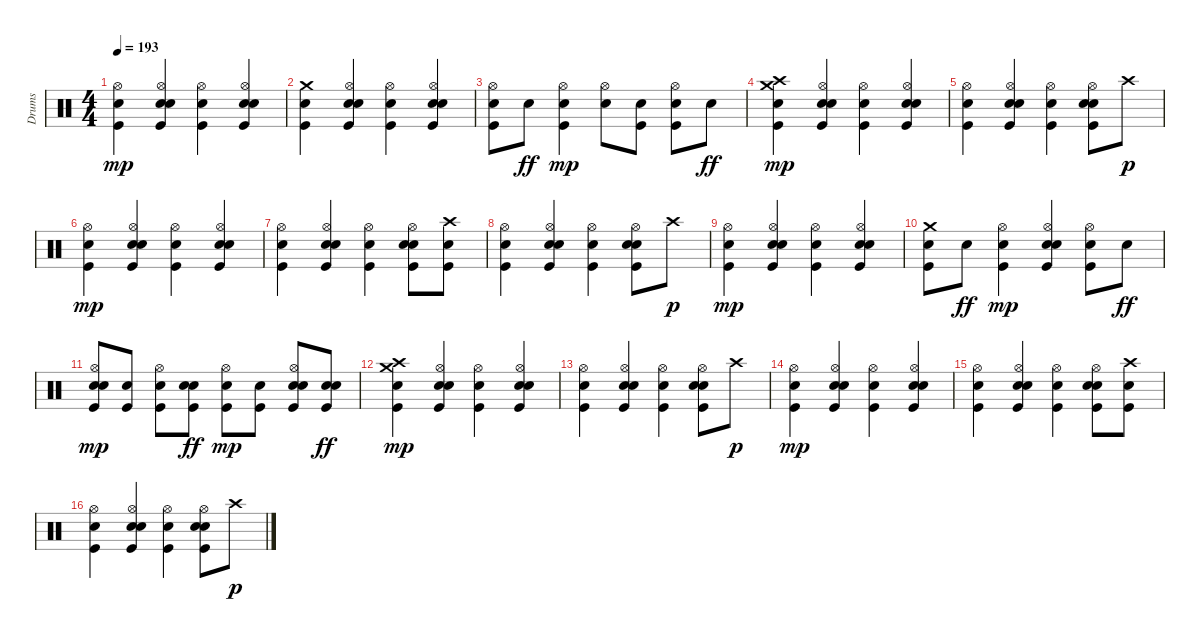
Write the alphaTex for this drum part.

\track ("Drums" "Drums") {instrument percussion}
\staff {score}
\articulation defaults
\ts (4 4)
\tempo 193
\clef neutral
\ks c
("Kick (hit)" "Snare (hit) 2" "Hi-Hat (open)").4{dy mp} ("Kick (hit)" "Snare (hit) 2" "Electric Snare (hit)" "Hi-Hat (open)").4 ("Kick (hit)" "Snare (hit) 2" "Hi-Hat (open)").4 ("Kick (hit)" "Snare (hit) 2" "Electric Snare (hit)" "Hi-Hat (open)").4 |
("Crash medium (hit)" "Kick (hit)" "Snare (hit) 2").4 ("Kick (hit)" "Snare (hit) 2" "Electric Snare (hit)" "Hi-Hat (open)").4 ("Kick (hit)" "Snare (hit) 2" "Hi-Hat (open)").4 ("Kick (hit)" "Snare (hit) 2" "Electric Snare (hit)" "Hi-Hat (open)").4 |
("Kick (hit)" "Snare (hit) 2" "Hi-Hat (open)").8 "Electric Snare (hit)".8{dy ff} ("Kick (hit)" "Snare (hit) 2" "Hi-Hat (open)").4{dy mp} ("Electric Snare (hit)" "Hi-Hat (open)").8 ("Kick (hit)" "Snare (hit) 2").8 ("Kick (hit)" "Snare (hit) 2" "Hi-Hat (open)").8 "Electric Snare (hit)".8{dy ff} |
("Crash medium (hit)" "Crash high (hit)" "Kick (hit)" "Snare (hit) 2").4{dy mp} ("Kick (hit)" "Snare (hit) 2" "Electric Snare (hit)" "Hi-Hat (open)").4 ("Kick (hit)" "Snare (hit) 2" "Hi-Hat (open)").4 ("Kick (hit)" "Snare (hit) 2" "Electric Snare (hit)" "Hi-Hat (open)").4 |
("Kick (hit)" "Snare (hit) 2" "Hi-Hat (open)").4 ("Kick (hit)" "Snare (hit) 2" "Electric Snare (hit)" "Hi-Hat (open)").4 ("Kick (hit)" "Snare (hit) 2" "Hi-Hat (open)").4 ("Kick (hit)" "Snare (hit) 2" "Electric Snare (hit)" "Hi-Hat (open)").8 "Crash high (hit)".8{dy p} |
("Kick (hit)" "Snare (hit) 2" "Hi-Hat (open)").4{dy mp} ("Kick (hit)" "Snare (hit) 2" "Electric Snare (hit)" "Hi-Hat (open)").4 ("Kick (hit)" "Snare (hit) 2" "Hi-Hat (open)").4 ("Kick (hit)" "Snare (hit) 2" "Electric Snare (hit)" "Hi-Hat (open)").4 |
("Kick (hit)" "Snare (hit) 2" "Hi-Hat (open)").4 ("Kick (hit)" "Snare (hit) 2" "Electric Snare (hit)" "Hi-Hat (open)").4 ("Kick (hit)" "Snare (hit) 2" "Hi-Hat (open)").4 ("Kick (hit)" "Snare (hit) 2" "Electric Snare (hit)" "Hi-Hat (open)").8 ("Crash high (hit)" "Kick (hit)" "Snare (hit) 2").8 |
("Kick (hit)" "Snare (hit) 2" "Hi-Hat (open)").4 ("Kick (hit)" "Snare (hit) 2" "Electric Snare (hit)" "Hi-Hat (open)").4 ("Kick (hit)" "Snare (hit) 2" "Hi-Hat (open)").4 ("Kick (hit)" "Snare (hit) 2" "Electric Snare (hit)" "Hi-Hat (open)").8 "Crash high (hit)".8{dy p} |
("Kick (hit)" "Snare (hit) 2" "Hi-Hat (open)").4{dy mp} ("Kick (hit)" "Snare (hit) 2" "Electric Snare (hit)" "Hi-Hat (open)").4 ("Kick (hit)" "Snare (hit) 2" "Hi-Hat (open)").4 ("Kick (hit)" "Snare (hit) 2" "Electric Snare (hit)" "Hi-Hat (open)").4 |
("Crash medium (hit)" "Kick (hit)" "Snare (hit) 2").8 "Electric Snare (hit)".8{dy ff} ("Kick (hit)" "Snare (hit) 2" "Hi-Hat (open)").4{dy mp} ("Kick (hit)" "Snare (hit) 2" "Electric Snare (hit)" "Hi-Hat (open)").4 ("Kick (hit)" "Snare (hit) 2" "Hi-Hat (open)").8 "Electric Snare (hit)".8{dy ff} |
("Kick (hit)" "Snare (hit) 2" "Electric Snare (hit)" "Hi-Hat (open)").8{dy mp} ("Kick (hit)" "Snare (hit) 2").8 ("Kick (hit)" "Snare (hit) 2" "Hi-Hat (open)").8 ("Kick (hit)" "Snare (hit) 2" "Electric Snare (hit)").8{dy ff} ("Kick (hit)" "Snare (hit) 2" "Hi-Hat (open)").8{dy mp} ("Kick (hit)" "Snare (hit) 2").8 ("Kick (hit)" "Snare (hit) 2" "Electric Snare (hit)" "Hi-Hat (open)").8 ("Kick (hit)" "Snare (hit) 2" "Electric Snare (hit)").8{dy ff} |
("Crash medium (hit)" "Crash high (hit)" "Kick (hit)" "Snare (hit) 2").4{dy mp} ("Kick (hit)" "Snare (hit) 2" "Electric Snare (hit)" "Hi-Hat (open)").4 ("Kick (hit)" "Snare (hit) 2" "Hi-Hat (open)").4 ("Kick (hit)" "Snare (hit) 2" "Electric Snare (hit)" "Hi-Hat (open)").4 |
("Kick (hit)" "Snare (hit) 2" "Hi-Hat (open)").4 ("Kick (hit)" "Snare (hit) 2" "Electric Snare (hit)" "Hi-Hat (open)").4 ("Kick (hit)" "Snare (hit) 2" "Hi-Hat (open)").4 ("Kick (hit)" "Snare (hit) 2" "Electric Snare (hit)" "Hi-Hat (open)").8 "Crash high (hit)".8{dy p} |
("Kick (hit)" "Snare (hit) 2" "Hi-Hat (open)").4{dy mp} ("Kick (hit)" "Snare (hit) 2" "Electric Snare (hit)" "Hi-Hat (open)").4 ("Kick (hit)" "Snare (hit) 2" "Hi-Hat (open)").4 ("Kick (hit)" "Snare (hit) 2" "Electric Snare (hit)" "Hi-Hat (open)").4 |
("Kick (hit)" "Snare (hit) 2" "Hi-Hat (open)").4 ("Kick (hit)" "Snare (hit) 2" "Electric Snare (hit)" "Hi-Hat (open)").4 ("Kick (hit)" "Snare (hit) 2" "Hi-Hat (open)").4 ("Kick (hit)" "Snare (hit) 2" "Electric Snare (hit)" "Hi-Hat (open)").8 ("Crash high (hit)" "Kick (hit)" "Snare (hit) 2").8 |
("Kick (hit)" "Snare (hit) 2" "Hi-Hat (open)").4 ("Kick (hit)" "Snare (hit) 2" "Electric Snare (hit)" "Hi-Hat (open)").4 ("Kick (hit)" "Snare (hit) 2" "Hi-Hat (open)").4 ("Kick (hit)" "Snare (hit) 2" "Electric Snare (hit)" "Hi-Hat (open)").8 "Crash high (hit)".8{dy p}
